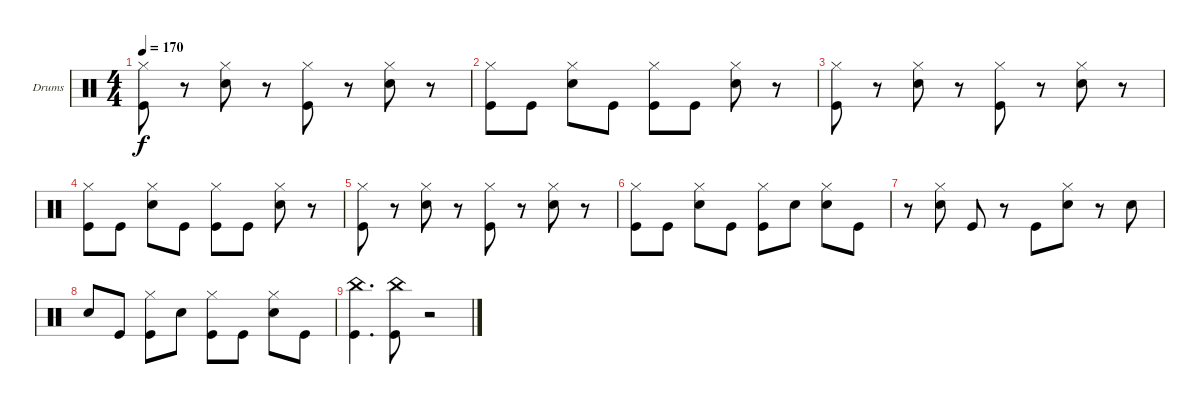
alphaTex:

\bracketExtendMode groupsimilarinstruments
\firstSystemTrackNameOrientation horizontal
\otherSystemsTrackNameOrientation horizontal
\track ("Drumkit" "Drums") {instrument percussion}
\staff {score}
\articulation defaults
\ts (4 4)
\tempo 170
\clef neutral
\ks c
("Hi-Hat (closed)" "Kick (hit)").8{dy f} r.8 ("Hi-Hat (closed)" "Snare (hit) 2").8 r.8 ("Hi-Hat (closed)" "Kick (hit)").8 r.8 ("Hi-Hat (closed)" "Snare (hit) 2").8 r.8 |
("Hi-Hat (closed)" "Kick (hit)").8 "Kick (hit)".8 ("Hi-Hat (closed)" "Snare (hit) 2").8 "Kick (hit)".8 ("Hi-Hat (closed)" "Kick (hit)").8 "Kick (hit)".8 ("Hi-Hat (closed)" "Snare (hit) 2").8 r.8 |
("Hi-Hat (closed)" "Kick (hit)").8 r.8 ("Hi-Hat (closed)" "Snare (hit) 2").8 r.8 ("Hi-Hat (closed)" "Kick (hit)").8 r.8 ("Hi-Hat (closed)" "Snare (hit) 2").8 r.8 |
("Hi-Hat (closed)" "Kick (hit)").8 "Kick (hit)".8 ("Hi-Hat (closed)" "Snare (hit) 2").8 "Kick (hit)".8 ("Hi-Hat (closed)" "Kick (hit)").8 "Kick (hit)".8 ("Hi-Hat (closed)" "Snare (hit) 2").8 r.8 |
("Hi-Hat (closed)" "Kick (hit)").8 r.8 ("Hi-Hat (closed)" "Snare (hit) 2").8 r.8 ("Hi-Hat (closed)" "Kick (hit)").8 r.8 ("Hi-Hat (closed)" "Snare (hit) 2").8 r.8 |
("Hi-Hat (closed)" "Kick (hit)").8 "Kick (hit)".8 ("Hi-Hat (closed)" "Snare (hit) 2").8 "Kick (hit)".8 ("Hi-Hat (closed)" "Kick (hit)").8 "Snare (hit) 2".8 ("Hi-Hat (closed)" "Snare (hit) 2").8 "Kick (hit)".8 |
r.8 ("Hi-Hat (closed)" "Snare (hit) 2").8 "Kick (hit)".8 r.8 "Kick (hit)".8 ("Hi-Hat (closed)" "Snare (hit) 2").8 r.8 "Snare (hit) 2".8 |
"Snare (hit) 2".8 "Kick (hit)".8 ("Hi-Hat (closed)" "Kick (hit)").8 "Snare (hit) 2".8 ("Hi-Hat (closed)" "Kick (hit)").8 "Kick (hit)".8 ("Hi-Hat (closed)" "Snare (hit) 2").8 "Kick (hit)".8 |
("China (hit)" "Kick (hit)").4{d} ("China (hit)" "Kick (hit)").8 r.2
